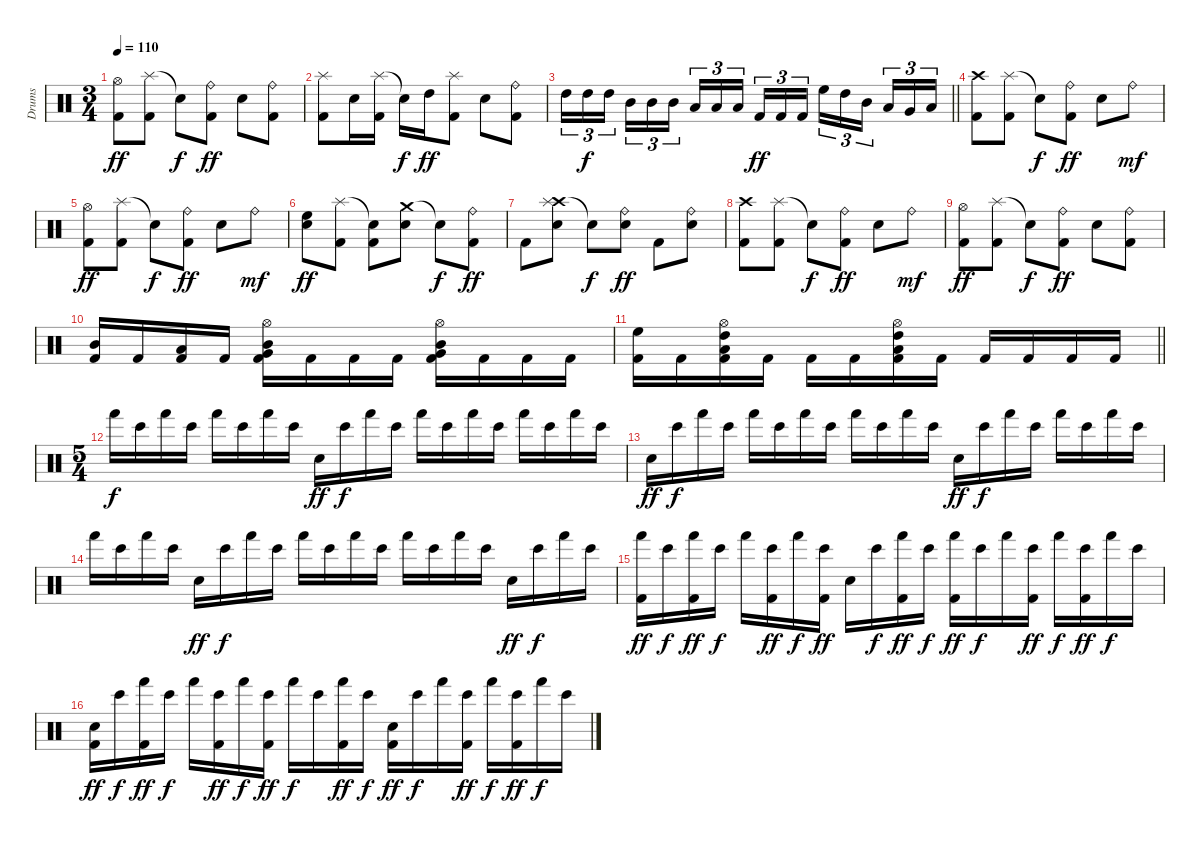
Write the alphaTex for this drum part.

\track ("Drums" "Drums") {instrument percussion}
\staff {score}
\articulation defaults
\ts (3 4)
\tempo 110
\clef neutral
\ks c
("Hi-Hat (open)" "Kick (hit) 2").8{dy ff} ("Splash (hit)" "Kick (hit) 2").8 "Snare (hit)"{t}.8{dy f} ("Ride (bell)" "Kick (hit) 2").8{dy ff} "Snare (hit) 2".8 ("Ride (bell)" "Kick (hit) 2").8 |
("Splash (hit)" "Kick (hit) 2").8 "Snare (hit) 2".16 ("Splash (hit)" "Kick (hit) 2").16 "Snare (hit)"{t}.16{dy f} "High Tom (hit)".16{dy ff} ("Splash (hit)" "Kick (hit) 2").8 "Snare (hit) 2".8 ("Ride (bell)" "Kick (hit) 2").8 |
\barLineRight lightlight "High Tom (hit)".16{tu (3 2)} "High Tom (hit)".16{tu (3 2) dy f} "High Tom (hit)".16{tu (3 2) beam splitsecondary} "Mid Tom (hit)".16{tu (3 2)} "Mid Tom (hit)".16{tu (3 2)} "Mid Tom (hit)".16{tu (3 2)} "Low Tom (hit)".16{tu (3 2)} "Low Tom (hit)".16{tu (3 2)} "Low Tom (hit)".16{tu (3 2) beam splitsecondary} "Kick (hit) 2".16{tu (3 2) dy ff} "Kick (hit) 2".16{tu (3 2)} "Kick (hit) 2".16{tu (3 2)} "High Floor Tom (hit)".16{tu (3 2)} "High Tom (hit)".16{tu (3 2)} "Mid Tom (hit)".16{tu (3 2) beam splitsecondary} "Low Tom (hit)".16{tu (3 2)} "Very Low Tom (hit)".16{tu (3 2)} "Low Floor Tom (hit)".16{tu (3 2)}
|
\section ("" "")
("Crash high (hit)" "Kick (hit) 2").8 ("Splash (hit)" "Kick (hit) 2").8 "Snare (hit)"{t}.8{dy f} ("Ride (bell)" "Kick (hit) 2").8{dy ff} "Snare (hit) 2".8 "Ride (bell)".8{dy mf} |
("Hi-Hat (open)" "Kick (hit) 2").8{dy ff} ("Splash (hit)" "Kick (hit) 2").8 "Snare (hit)"{t}.8{dy f} ("Ride (bell)" "Kick (hit) 2").8{dy ff} "Snare (hit) 2".8 "Ride (bell)".8{dy mf} |
("High Floor Tom (hit)" "Snare (hit) 2").8{dy ff} ("Splash (hit)" "Kick (hit) 2").8 ("Snare (hit)"{t} "Kick (hit) 2").8 ("Crash medium (hit)" "Snare (hit) 2").8 "Snare (hit)"{t}.8{dy f} ("Ride (bell)" "Kick (hit) 2").8{dy ff} |
"Kick (hit) 2".8 ("Crash high (hit)" "Splash (hit)" "Snare (hit) 2").8 "Snare (hit)"{t}.8{dy f} ("Ride (bell)" "Snare (hit) 2").8{dy ff} "Kick (hit) 2".8 ("Ride (bell)" "Snare (hit) 2").8 |
("Crash high (hit)" "Kick (hit) 2").8 ("Splash (hit)" "Kick (hit) 2").8 "Snare (hit)"{t}.8{dy f} ("Ride (bell)" "Kick (hit) 2").8{dy ff} "Snare (hit) 2".8 "Ride (bell)".8{dy mf} |
("Hi-Hat (open)" "Kick (hit) 2").8{dy ff} ("Splash (hit)" "Kick (hit) 2").8 "Snare (hit)"{t}.8{dy f} ("Ride (bell)" "Kick (hit) 2").8{dy ff} "Snare (hit) 2".8 ("Ride (bell)" "Kick (hit) 2").8 |
("Mid Tom (hit)" "Kick (hit) 2").16 "Kick (hit) 2".16 ("Low Tom (hit)" "Kick (hit) 2").16 "Kick (hit) 2".16 ("Mid Tom (hit)" "Hi-Hat (open)" "Very Low Tom (hit)" "Kick (hit) 2").16 "Kick (hit) 2".16 "Kick (hit) 2".16 "Kick (hit) 2".16 ("Mid Tom (hit)" "Hi-Hat (open)" "Very Low Tom (hit)" "Kick (hit) 2").16 "Kick (hit) 2".16 "Kick (hit) 2".16 "Kick (hit) 2".16 |
\barLineRight lightlight
("High Floor Tom (hit)" "Kick (hit) 2").16 "Kick (hit) 2".16 ("High Tom (hit)" "Hi-Hat (open)" "Low Tom (hit)" "Kick (hit) 2").16 "Kick (hit) 2".16 "Kick (hit) 2".16 "Kick (hit) 2".16 ("High Tom (hit)" "Hi-Hat (open)" "Low Tom (hit)" "Kick (hit) 2").16 "Kick (hit) 2".16 "Kick (hit) 2".16 "Kick (hit) 2".16 "Kick (hit) 2".16 "Kick (hit) 2".16 |
\ts (5 4)
\section ("" "")
"Hand (hit)".16{dy f} "Bongo High (hit)".16 "Hand (hit)".16 "Bongo High (hit)".16 "Hand (hit)".16 "Bongo High (hit)".16 "Hand (hit)".16 "Bongo High (hit)".16 "Snare (hit) 2".16{dy ff} "Bongo High (hit)".16{dy f} "Hand (hit)".16 "Bongo High (hit)".16 "Hand (hit)".16 "Bongo High (hit)".16 "Hand (hit)".16 "Bongo High (hit)".16 "Hand (hit)".16 "Bongo High (hit)".16 "Hand (hit)".16 "Bongo High (hit)".16 |
"Snare (hit) 2".16{dy ff} "Bongo High (hit)".16{dy f} "Hand (hit)".16 "Bongo High (hit)".16 "Hand (hit)".16 "Bongo High (hit)".16 "Hand (hit)".16 "Bongo High (hit)".16 "Hand (hit)".16 "Bongo High (hit)".16 "Hand (hit)".16 "Bongo High (hit)".16 "Snare (hit) 2".16{dy ff} "Bongo High (hit)".16{dy f} "Hand (hit)".16 "Bongo High (hit)".16 "Hand (hit)".16 "Bongo High (hit)".16 "Hand (hit)".16 "Bongo High (hit)".16 |
"Hand (hit)".16 "Bongo High (hit)".16 "Hand (hit)".16 "Bongo High (hit)".16 "Snare (hit) 2".16{dy ff} "Bongo High (hit)".16{dy f} "Hand (hit)".16 "Bongo High (hit)".16 "Hand (hit)".16 "Bongo High (hit)".16 "Hand (hit)".16 "Bongo High (hit)".16 "Hand (hit)".16 "Bongo High (hit)".16 "Hand (hit)".16 "Bongo High (hit)".16 "Snare (hit) 2".16{dy ff} "Bongo High (hit)".16{dy f} "Hand (hit)".16 "Bongo High (hit)".16 |
("Hand (hit)" "Kick (hit) 2").16{dy ff} "Bongo High (hit)".16{dy f} ("Hand (hit)" "Kick (hit) 2").16{dy ff} "Bongo High (hit)".16{dy f} "Hand (hit)".16 ("Bongo High (hit)" "Kick (hit) 2").16{dy ff} "Hand (hit)".16{dy f} ("Bongo High (hit)" "Kick (hit) 2").16{dy ff} "Snare (hit) 2".16 "Bongo High (hit)".16{dy f} ("Hand (hit)" "Kick (hit) 2").16{dy ff} "Bongo High (hit)".16{dy f} ("Hand (hit)" "Kick (hit) 2").16{dy ff} "Bongo High (hit)".16{dy f} "Hand (hit)".16 ("Bongo High (hit)" "Kick (hit) 2").16{dy ff} "Hand (hit)".16{dy f} ("Bongo High (hit)" "Kick (hit) 2").16{dy ff} "Hand (hit)".16{dy f} "Bongo High (hit)".16 |
("Snare (hit) 2" "Kick (hit) 2").16{dy ff} "Bongo High (hit)".16{dy f} ("Hand (hit)" "Kick (hit) 2").16{dy ff} "Bongo High (hit)".16{dy f} "Hand (hit)".16 ("Bongo High (hit)" "Kick (hit) 2").16{dy ff} "Hand (hit)".16{dy f} ("Bongo High (hit)" "Kick (hit) 2").16{dy ff} "Hand (hit)".16{dy f} "Bongo High (hit)".16 ("Hand (hit)" "Kick (hit) 2").16{dy ff} "Bongo High (hit)".16{dy f} ("Snare (hit) 2" "Kick (hit) 2").16{dy ff} "Bongo High (hit)".16{dy f} "Hand (hit)".16 ("Bongo High (hit)" "Kick (hit) 2").16{dy ff} "Hand (hit)".16{dy f} ("Bongo High (hit)" "Kick (hit) 2").16{dy ff} "Hand (hit)".16{dy f} "Bongo High (hit)".16
